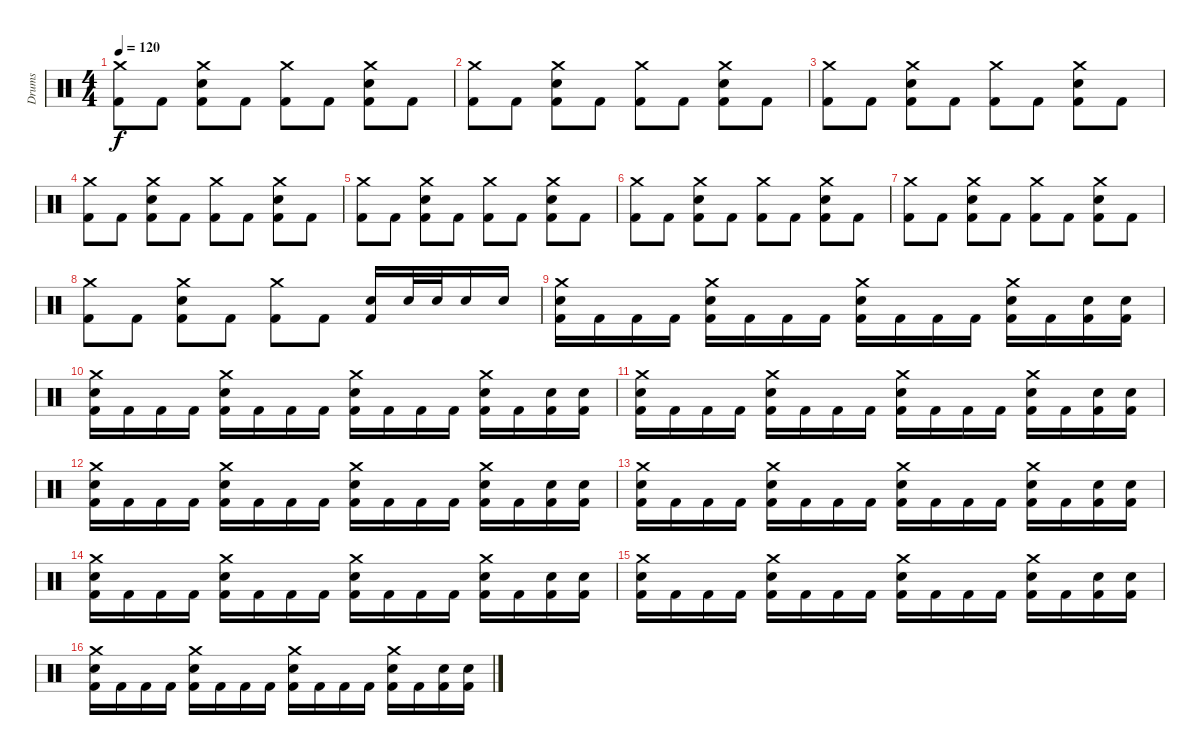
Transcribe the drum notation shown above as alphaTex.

\track ("Drums" "Drums") {instrument percussion}
\staff {score}
\articulation defaults
\ts (4 4)
\tempo 120
\clef neutral
\ks c
("Crash medium (hit)" "Kick (hit) 2").8{dy f} "Kick (hit) 2".8 ("Crash medium (hit)" "Electric Snare (hit)" "Kick (hit) 2").8 "Kick (hit) 2".8 ("Crash medium (hit)" "Kick (hit) 2").8 "Kick (hit) 2".8 ("Crash medium (hit)" "Electric Snare (hit)" "Kick (hit) 2").8 "Kick (hit) 2".8 |
("Crash medium (hit)" "Kick (hit) 2").8 "Kick (hit) 2".8 ("Crash medium (hit)" "Electric Snare (hit)" "Kick (hit) 2").8 "Kick (hit) 2".8 ("Crash medium (hit)" "Kick (hit) 2").8 "Kick (hit) 2".8 ("Crash medium (hit)" "Electric Snare (hit)" "Kick (hit) 2").8 "Kick (hit) 2".8 |
("Crash medium (hit)" "Kick (hit) 2").8 "Kick (hit) 2".8 ("Crash medium (hit)" "Electric Snare (hit)" "Kick (hit) 2").8 "Kick (hit) 2".8 ("Crash medium (hit)" "Kick (hit) 2").8 "Kick (hit) 2".8 ("Crash medium (hit)" "Electric Snare (hit)" "Kick (hit) 2").8 "Kick (hit) 2".8 |
("Crash medium (hit)" "Kick (hit) 2").8 "Kick (hit) 2".8 ("Crash medium (hit)" "Electric Snare (hit)" "Kick (hit) 2").8 "Kick (hit) 2".8 ("Crash medium (hit)" "Kick (hit) 2").8 "Kick (hit) 2".8 ("Crash medium (hit)" "Electric Snare (hit)" "Kick (hit) 2").8 "Kick (hit) 2".8 |
("Crash medium (hit)" "Kick (hit) 2").8 "Kick (hit) 2".8 ("Crash medium (hit)" "Electric Snare (hit)" "Kick (hit) 2").8 "Kick (hit) 2".8 ("Crash medium (hit)" "Kick (hit) 2").8 "Kick (hit) 2".8 ("Crash medium (hit)" "Electric Snare (hit)" "Kick (hit) 2").8 "Kick (hit) 2".8 |
("Crash medium (hit)" "Kick (hit) 2").8 "Kick (hit) 2".8 ("Crash medium (hit)" "Electric Snare (hit)" "Kick (hit) 2").8 "Kick (hit) 2".8 ("Crash medium (hit)" "Kick (hit) 2").8 "Kick (hit) 2".8 ("Crash medium (hit)" "Electric Snare (hit)" "Kick (hit) 2").8 "Kick (hit) 2".8 |
("Crash medium (hit)" "Kick (hit) 2").8 "Kick (hit) 2".8 ("Crash medium (hit)" "Electric Snare (hit)" "Kick (hit) 2").8 "Kick (hit) 2".8 ("Crash medium (hit)" "Kick (hit) 2").8 "Kick (hit) 2".8 ("Crash medium (hit)" "Electric Snare (hit)" "Kick (hit) 2").8 "Kick (hit) 2".8 |
("Crash medium (hit)" "Kick (hit) 2").8 "Kick (hit) 2".8 ("Crash medium (hit)" "Electric Snare (hit)" "Kick (hit) 2").8 "Kick (hit) 2".8 ("Crash medium (hit)" "Kick (hit) 2").8 "Kick (hit) 2".8 ("Electric Snare (hit)" "Kick (hit) 2").16 "Electric Snare (hit)".32 "Electric Snare (hit)".32 "Electric Snare (hit)".16 "Electric Snare (hit)".16 |
("Crash medium (hit)" "Electric Snare (hit)" "Kick (hit) 2").16 "Kick (hit) 2".16 "Kick (hit) 2".16 "Kick (hit) 2".16 ("Crash medium (hit)" "Electric Snare (hit)" "Kick (hit) 2").16 "Kick (hit) 2".16 "Kick (hit) 2".16 "Kick (hit) 2".16 ("Crash medium (hit)" "Electric Snare (hit)" "Kick (hit) 2").16 "Kick (hit) 2".16 "Kick (hit) 2".16 "Kick (hit) 2".16 ("Crash medium (hit)" "Electric Snare (hit)" "Kick (hit) 2").16 "Kick (hit) 2".16 ("Electric Snare (hit)" "Kick (hit) 2").16 ("Electric Snare (hit)" "Kick (hit) 2").16 |
("Crash medium (hit)" "Electric Snare (hit)" "Kick (hit) 2").16 "Kick (hit) 2".16 "Kick (hit) 2".16 "Kick (hit) 2".16 ("Crash medium (hit)" "Electric Snare (hit)" "Kick (hit) 2").16 "Kick (hit) 2".16 "Kick (hit) 2".16 "Kick (hit) 2".16 ("Crash medium (hit)" "Electric Snare (hit)" "Kick (hit) 2").16 "Kick (hit) 2".16 "Kick (hit) 2".16 "Kick (hit) 2".16 ("Crash medium (hit)" "Electric Snare (hit)" "Kick (hit) 2").16 "Kick (hit) 2".16 ("Electric Snare (hit)" "Kick (hit) 2").16 ("Electric Snare (hit)" "Kick (hit) 2").16 |
("Crash medium (hit)" "Electric Snare (hit)" "Kick (hit) 2").16 "Kick (hit) 2".16 "Kick (hit) 2".16 "Kick (hit) 2".16 ("Crash medium (hit)" "Electric Snare (hit)" "Kick (hit) 2").16 "Kick (hit) 2".16 "Kick (hit) 2".16 "Kick (hit) 2".16 ("Crash medium (hit)" "Electric Snare (hit)" "Kick (hit) 2").16 "Kick (hit) 2".16 "Kick (hit) 2".16 "Kick (hit) 2".16 ("Crash medium (hit)" "Electric Snare (hit)" "Kick (hit) 2").16 "Kick (hit) 2".16 ("Electric Snare (hit)" "Kick (hit) 2").16 ("Electric Snare (hit)" "Kick (hit) 2").16 |
("Crash medium (hit)" "Electric Snare (hit)" "Kick (hit) 2").16 "Kick (hit) 2".16 "Kick (hit) 2".16 "Kick (hit) 2".16 ("Crash medium (hit)" "Electric Snare (hit)" "Kick (hit) 2").16 "Kick (hit) 2".16 "Kick (hit) 2".16 "Kick (hit) 2".16 ("Crash medium (hit)" "Electric Snare (hit)" "Kick (hit) 2").16 "Kick (hit) 2".16 "Kick (hit) 2".16 "Kick (hit) 2".16 ("Crash medium (hit)" "Electric Snare (hit)" "Kick (hit) 2").16 "Kick (hit) 2".16 ("Electric Snare (hit)" "Kick (hit) 2").16 ("Electric Snare (hit)" "Kick (hit) 2").16 |
("Crash medium (hit)" "Electric Snare (hit)" "Kick (hit) 2").16 "Kick (hit) 2".16 "Kick (hit) 2".16 "Kick (hit) 2".16 ("Crash medium (hit)" "Electric Snare (hit)" "Kick (hit) 2").16 "Kick (hit) 2".16 "Kick (hit) 2".16 "Kick (hit) 2".16 ("Crash medium (hit)" "Electric Snare (hit)" "Kick (hit) 2").16 "Kick (hit) 2".16 "Kick (hit) 2".16 "Kick (hit) 2".16 ("Crash medium (hit)" "Electric Snare (hit)" "Kick (hit) 2").16 "Kick (hit) 2".16 ("Electric Snare (hit)" "Kick (hit) 2").16 ("Electric Snare (hit)" "Kick (hit) 2").16 |
("Crash medium (hit)" "Electric Snare (hit)" "Kick (hit) 2").16 "Kick (hit) 2".16 "Kick (hit) 2".16 "Kick (hit) 2".16 ("Crash medium (hit)" "Electric Snare (hit)" "Kick (hit) 2").16 "Kick (hit) 2".16 "Kick (hit) 2".16 "Kick (hit) 2".16 ("Crash medium (hit)" "Electric Snare (hit)" "Kick (hit) 2").16 "Kick (hit) 2".16 "Kick (hit) 2".16 "Kick (hit) 2".16 ("Crash medium (hit)" "Electric Snare (hit)" "Kick (hit) 2").16 "Kick (hit) 2".16 ("Electric Snare (hit)" "Kick (hit) 2").16 ("Electric Snare (hit)" "Kick (hit) 2").16 |
("Crash medium (hit)" "Electric Snare (hit)" "Kick (hit) 2").16 "Kick (hit) 2".16 "Kick (hit) 2".16 "Kick (hit) 2".16 ("Crash medium (hit)" "Electric Snare (hit)" "Kick (hit) 2").16 "Kick (hit) 2".16 "Kick (hit) 2".16 "Kick (hit) 2".16 ("Crash medium (hit)" "Electric Snare (hit)" "Kick (hit) 2").16 "Kick (hit) 2".16 "Kick (hit) 2".16 "Kick (hit) 2".16 ("Crash medium (hit)" "Electric Snare (hit)" "Kick (hit) 2").16 "Kick (hit) 2".16 ("Electric Snare (hit)" "Kick (hit) 2").16 ("Electric Snare (hit)" "Kick (hit) 2").16 |
("Crash medium (hit)" "Electric Snare (hit)" "Kick (hit) 2").16 "Kick (hit) 2".16 "Kick (hit) 2".16 "Kick (hit) 2".16 ("Crash medium (hit)" "Electric Snare (hit)" "Kick (hit) 2").16 "Kick (hit) 2".16 "Kick (hit) 2".16 "Kick (hit) 2".16 ("Crash medium (hit)" "Electric Snare (hit)" "Kick (hit) 2").16 "Kick (hit) 2".16 "Kick (hit) 2".16 "Kick (hit) 2".16 ("Crash medium (hit)" "Electric Snare (hit)" "Kick (hit) 2").16 "Kick (hit) 2".16 ("Electric Snare (hit)" "Kick (hit) 2").16 ("Electric Snare (hit)" "Kick (hit) 2").16
